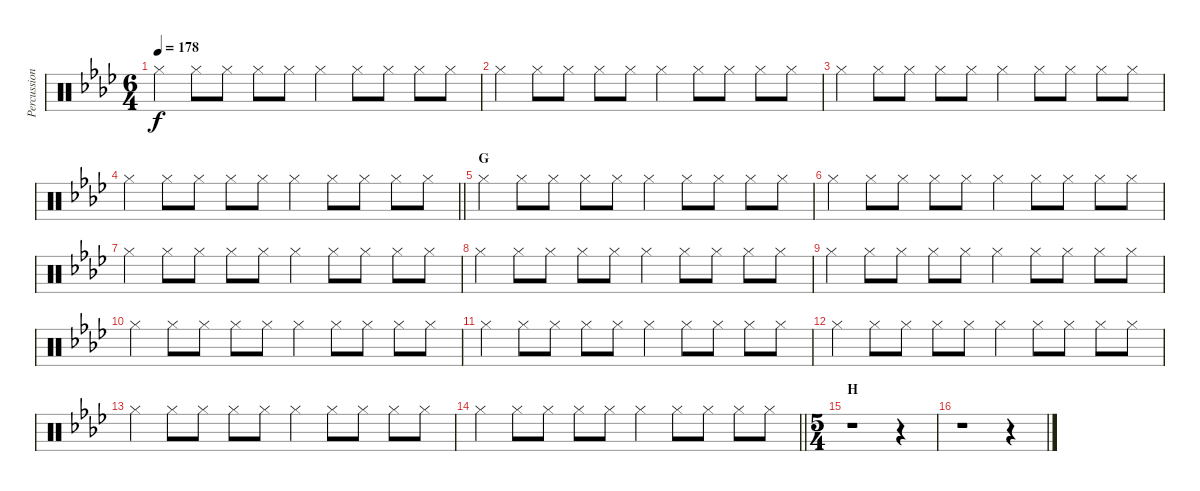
\track ("Percussion" "Percussion") {instrument percussion}
\staff {score}
\articulation defaults
\ts (6 4)
\tempo 178
\clef neutral
\ks ab "Hi-Hat (closed)".4{dy f} "Hi-Hat (closed)".8 "Hi-Hat (closed)".8 "Hi-Hat (closed)".8 "Hi-Hat (closed)".8 "Hi-Hat (closed)".4 "Hi-Hat (closed)".8 "Hi-Hat (closed)".8 "Hi-Hat (closed)".8 "Hi-Hat (closed)".8
|
"Hi-Hat (closed)".4 "Hi-Hat (closed)".8 "Hi-Hat (closed)".8 "Hi-Hat (closed)".8 "Hi-Hat (closed)".8 "Hi-Hat (closed)".4 "Hi-Hat (closed)".8 "Hi-Hat (closed)".8 "Hi-Hat (closed)".8 "Hi-Hat (closed)".8 |
"Hi-Hat (closed)".4 "Hi-Hat (closed)".8 "Hi-Hat (closed)".8 "Hi-Hat (closed)".8 "Hi-Hat (closed)".8 "Hi-Hat (closed)".4 "Hi-Hat (closed)".8 "Hi-Hat (closed)".8 "Hi-Hat (closed)".8 "Hi-Hat (closed)".8 |
\barLineRight lightlight "Hi-Hat (closed)".4 "Hi-Hat (closed)".8 "Hi-Hat (closed)".8 "Hi-Hat (closed)".8 "Hi-Hat (closed)".8 "Hi-Hat (closed)".4 "Hi-Hat (closed)".8 "Hi-Hat (closed)".8 "Hi-Hat (closed)".8 "Hi-Hat (closed)".8
|
\section ("" "G")
"Hi-Hat (closed)".4 "Hi-Hat (closed)".8 "Hi-Hat (closed)".8 "Hi-Hat (closed)".8 "Hi-Hat (closed)".8 "Hi-Hat (closed)".4 "Hi-Hat (closed)".8 "Hi-Hat (closed)".8 "Hi-Hat (closed)".8 "Hi-Hat (closed)".8 |
"Hi-Hat (closed)".4 "Hi-Hat (closed)".8 "Hi-Hat (closed)".8 "Hi-Hat (closed)".8 "Hi-Hat (closed)".8 "Hi-Hat (closed)".4 "Hi-Hat (closed)".8 "Hi-Hat (closed)".8 "Hi-Hat (closed)".8 "Hi-Hat (closed)".8 |
"Hi-Hat (closed)".4 "Hi-Hat (closed)".8 "Hi-Hat (closed)".8 "Hi-Hat (closed)".8 "Hi-Hat (closed)".8 "Hi-Hat (closed)".4 "Hi-Hat (closed)".8 "Hi-Hat (closed)".8 "Hi-Hat (closed)".8 "Hi-Hat (closed)".8 |
"Hi-Hat (closed)".4 "Hi-Hat (closed)".8 "Hi-Hat (closed)".8 "Hi-Hat (closed)".8 "Hi-Hat (closed)".8 "Hi-Hat (closed)".4 "Hi-Hat (closed)".8 "Hi-Hat (closed)".8 "Hi-Hat (closed)".8 "Hi-Hat (closed)".8 |
"Hi-Hat (closed)".4 "Hi-Hat (closed)".8 "Hi-Hat (closed)".8 "Hi-Hat (closed)".8 "Hi-Hat (closed)".8 "Hi-Hat (closed)".4 "Hi-Hat (closed)".8 "Hi-Hat (closed)".8 "Hi-Hat (closed)".8 "Hi-Hat (closed)".8 |
"Hi-Hat (closed)".4 "Hi-Hat (closed)".8 "Hi-Hat (closed)".8 "Hi-Hat (closed)".8 "Hi-Hat (closed)".8 "Hi-Hat (closed)".4 "Hi-Hat (closed)".8 "Hi-Hat (closed)".8 "Hi-Hat (closed)".8 "Hi-Hat (closed)".8 |
"Hi-Hat (closed)".4 "Hi-Hat (closed)".8 "Hi-Hat (closed)".8 "Hi-Hat (closed)".8 "Hi-Hat (closed)".8 "Hi-Hat (closed)".4 "Hi-Hat (closed)".8 "Hi-Hat (closed)".8 "Hi-Hat (closed)".8 "Hi-Hat (closed)".8 |
"Hi-Hat (closed)".4 "Hi-Hat (closed)".8 "Hi-Hat (closed)".8 "Hi-Hat (closed)".8 "Hi-Hat (closed)".8 "Hi-Hat (closed)".4 "Hi-Hat (closed)".8 "Hi-Hat (closed)".8 "Hi-Hat (closed)".8 "Hi-Hat (closed)".8 |
"Hi-Hat (closed)".4 "Hi-Hat (closed)".8 "Hi-Hat (closed)".8 "Hi-Hat (closed)".8 "Hi-Hat (closed)".8 "Hi-Hat (closed)".4 "Hi-Hat (closed)".8 "Hi-Hat (closed)".8 "Hi-Hat (closed)".8 "Hi-Hat (closed)".8 |
\barLineRight lightlight "Hi-Hat (closed)".4 "Hi-Hat (closed)".8 "Hi-Hat (closed)".8 "Hi-Hat (closed)".8 "Hi-Hat (closed)".8 "Hi-Hat (closed)".4 "Hi-Hat (closed)".8 "Hi-Hat (closed)".8 "Hi-Hat (closed)".8 "Hi-Hat (closed)".8
|
\ts (5 4)
\section ("" "H")
r.1 r.4 |
r.1 r.4
